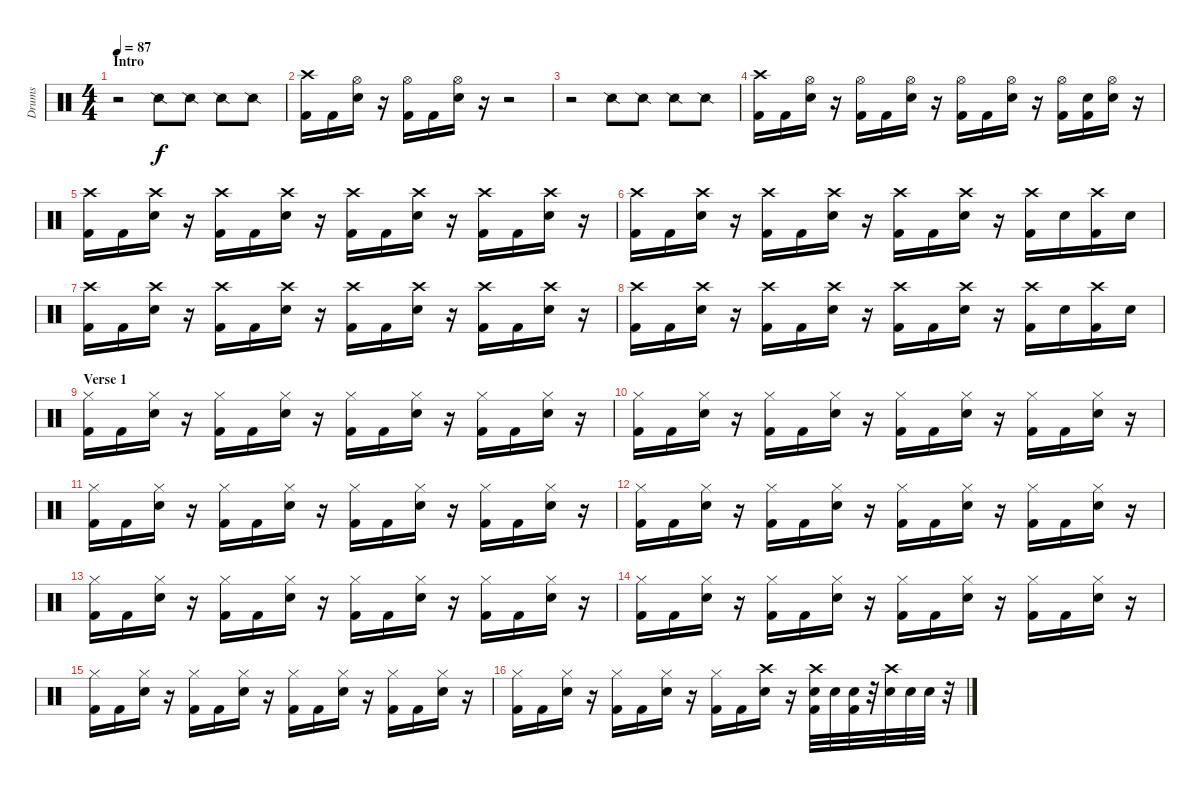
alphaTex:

\track ("Drums" "Drums") {instrument percussion}
\staff {score}
\articulation defaults
\ts (4 4)
\section ("" "Intro")
\tempo 87
\clef neutral
\ks c
r.2{dy f} "Snare (side stick) 2".8 "Snare (side stick) 2".8 "Snare (side stick) 2".8 "Snare (side stick) 2".8 |
("Crash high (hit)" "Kick (hit) 2").16 "Kick (hit) 2".16 ("Hi-Hat (open)" "Electric Snare (hit)").16 r.16 ("Hi-Hat (open)" "Kick (hit) 2").16 "Kick (hit) 2".16 ("Hi-Hat (open)" "Electric Snare (hit)").16 r.16 r.2 |
r.2 "Snare (side stick) 2".8 "Snare (side stick) 2".8 "Snare (side stick) 2".8 "Snare (side stick) 2".8 |
("Crash high (hit)" "Kick (hit) 2").16 "Kick (hit) 2".16 ("Hi-Hat (open)" "Electric Snare (hit)").16 r.16 ("Hi-Hat (open)" "Kick (hit) 2").16 "Kick (hit) 2".16 ("Hi-Hat (open)" "Electric Snare (hit)").16 r.16 ("Hi-Hat (open)" "Kick (hit) 2").16 "Kick (hit) 2".16 ("Hi-Hat (open)" "Electric Snare (hit)").16 r.16 ("Hi-Hat (open)" "Kick (hit) 2").16 ("Electric Snare (hit)" "Kick (hit) 2").16 ("Hi-Hat (open)" "Electric Snare (hit)").16 r.16 |
("Crash high (hit)" "Kick (hit) 2").16 "Kick (hit) 2".16 ("Crash high (hit)" "Electric Snare (hit)").16 r.16 ("Crash high (hit)" "Kick (hit) 2").16 "Kick (hit) 2".16 ("Crash high (hit)" "Electric Snare (hit)").16 r.16 ("Crash high (hit)" "Kick (hit) 2").16 "Kick (hit) 2".16 ("Crash high (hit)" "Electric Snare (hit)").16 r.16 ("Crash high (hit)" "Kick (hit) 2").16 "Kick (hit) 2".16 ("Crash high (hit)" "Electric Snare (hit)").16 r.16 |
("Crash high (hit)" "Kick (hit) 2").16 "Kick (hit) 2".16 ("Crash high (hit)" "Electric Snare (hit)").16 r.16 ("Crash high (hit)" "Kick (hit) 2").16 "Kick (hit) 2".16 ("Crash high (hit)" "Electric Snare (hit)").16 r.16 ("Crash high (hit)" "Kick (hit) 2").16 "Kick (hit) 2".16 ("Crash high (hit)" "Electric Snare (hit)").16 r.16 ("Crash high (hit)" "Kick (hit) 2").16 "Electric Snare (hit)".16 ("Crash high (hit)" "Kick (hit) 2").16 "Electric Snare (hit)".16 |
("Crash high (hit)" "Kick (hit) 2").16 "Kick (hit) 2".16 ("Crash high (hit)" "Electric Snare (hit)").16 r.16 ("Crash high (hit)" "Kick (hit) 2").16 "Kick (hit) 2".16 ("Crash high (hit)" "Electric Snare (hit)").16 r.16 ("Crash high (hit)" "Kick (hit) 2").16 "Kick (hit) 2".16 ("Crash high (hit)" "Electric Snare (hit)").16 r.16 ("Crash high (hit)" "Kick (hit) 2").16 "Kick (hit) 2".16 ("Crash high (hit)" "Electric Snare (hit)").16 r.16 |
("Crash high (hit)" "Kick (hit) 2").16 "Kick (hit) 2".16 ("Crash high (hit)" "Electric Snare (hit)").16 r.16 ("Crash high (hit)" "Kick (hit) 2").16 "Kick (hit) 2".16 ("Crash high (hit)" "Electric Snare (hit)").16 r.16 ("Crash high (hit)" "Kick (hit) 2").16 "Kick (hit) 2".16 ("Crash high (hit)" "Electric Snare (hit)").16 r.16 ("Crash high (hit)" "Kick (hit) 2").16 "Electric Snare (hit)".16 ("Crash high (hit)" "Kick (hit) 2").16 "Electric Snare (hit)".16 |
\section ("" "Verse 1")
("Hi-Hat (closed)" "Kick (hit) 2").16 "Kick (hit) 2".16 ("Hi-Hat (closed)" "Electric Snare (hit)").16 r.16 ("Hi-Hat (closed)" "Kick (hit) 2").16 "Kick (hit) 2".16 ("Hi-Hat (closed)" "Electric Snare (hit)").16 r.16 ("Hi-Hat (closed)" "Kick (hit) 2").16 "Kick (hit) 2".16 ("Hi-Hat (closed)" "Electric Snare (hit)").16 r.16 ("Hi-Hat (closed)" "Kick (hit) 2").16 "Kick (hit) 2".16 ("Hi-Hat (closed)" "Electric Snare (hit)").16 r.16 |
("Hi-Hat (closed)" "Kick (hit) 2").16 "Kick (hit) 2".16 ("Hi-Hat (closed)" "Electric Snare (hit)").16 r.16 ("Hi-Hat (closed)" "Kick (hit) 2").16 "Kick (hit) 2".16 ("Hi-Hat (closed)" "Electric Snare (hit)").16 r.16 ("Hi-Hat (closed)" "Kick (hit) 2").16 "Kick (hit) 2".16 ("Hi-Hat (closed)" "Electric Snare (hit)").16 r.16 ("Hi-Hat (closed)" "Kick (hit) 2").16 "Kick (hit) 2".16 ("Hi-Hat (closed)" "Electric Snare (hit)").16 r.16 |
("Hi-Hat (closed)" "Kick (hit) 2").16 "Kick (hit) 2".16 ("Hi-Hat (closed)" "Electric Snare (hit)").16 r.16 ("Hi-Hat (closed)" "Kick (hit) 2").16 "Kick (hit) 2".16 ("Hi-Hat (closed)" "Electric Snare (hit)").16 r.16 ("Hi-Hat (closed)" "Kick (hit) 2").16 "Kick (hit) 2".16 ("Hi-Hat (closed)" "Electric Snare (hit)").16 r.16 ("Hi-Hat (closed)" "Kick (hit) 2").16 "Kick (hit) 2".16 ("Hi-Hat (closed)" "Electric Snare (hit)").16 r.16 |
("Hi-Hat (closed)" "Kick (hit) 2").16 "Kick (hit) 2".16 ("Hi-Hat (closed)" "Electric Snare (hit)").16 r.16 ("Hi-Hat (closed)" "Kick (hit) 2").16 "Kick (hit) 2".16 ("Hi-Hat (closed)" "Electric Snare (hit)").16 r.16 ("Hi-Hat (closed)" "Kick (hit) 2").16 "Kick (hit) 2".16 ("Hi-Hat (closed)" "Electric Snare (hit)").16 r.16 ("Hi-Hat (closed)" "Kick (hit) 2").16 "Kick (hit) 2".16 ("Hi-Hat (closed)" "Electric Snare (hit)").16 r.16 |
("Hi-Hat (closed)" "Kick (hit) 2").16 "Kick (hit) 2".16 ("Hi-Hat (closed)" "Electric Snare (hit)").16 r.16 ("Hi-Hat (closed)" "Kick (hit) 2").16 "Kick (hit) 2".16 ("Hi-Hat (closed)" "Electric Snare (hit)").16 r.16 ("Hi-Hat (closed)" "Kick (hit) 2").16 "Kick (hit) 2".16 ("Hi-Hat (closed)" "Electric Snare (hit)").16 r.16 ("Hi-Hat (closed)" "Kick (hit) 2").16 "Kick (hit) 2".16 ("Hi-Hat (closed)" "Electric Snare (hit)").16 r.16 |
("Hi-Hat (closed)" "Kick (hit) 2").16 "Kick (hit) 2".16 ("Hi-Hat (closed)" "Electric Snare (hit)").16 r.16 ("Hi-Hat (closed)" "Kick (hit) 2").16 "Kick (hit) 2".16 ("Hi-Hat (closed)" "Electric Snare (hit)").16 r.16 ("Hi-Hat (closed)" "Kick (hit) 2").16 "Kick (hit) 2".16 ("Hi-Hat (closed)" "Electric Snare (hit)").16 r.16 ("Hi-Hat (closed)" "Kick (hit) 2").16 "Kick (hit) 2".16 ("Hi-Hat (closed)" "Electric Snare (hit)").16 r.16 |
("Hi-Hat (closed)" "Kick (hit) 2").16 "Kick (hit) 2".16 ("Hi-Hat (closed)" "Electric Snare (hit)").16 r.16 ("Hi-Hat (closed)" "Kick (hit) 2").16 "Kick (hit) 2".16 ("Hi-Hat (closed)" "Electric Snare (hit)").16 r.16 ("Hi-Hat (closed)" "Kick (hit) 2").16 "Kick (hit) 2".16 ("Hi-Hat (closed)" "Electric Snare (hit)").16 r.16 ("Hi-Hat (closed)" "Kick (hit) 2").16 "Kick (hit) 2".16 ("Hi-Hat (closed)" "Electric Snare (hit)").16 r.16 |
("Hi-Hat (closed)" "Kick (hit) 2").16 "Kick (hit) 2".16 ("Hi-Hat (closed)" "Electric Snare (hit)").16 r.16 ("Hi-Hat (closed)" "Kick (hit) 2").16 "Kick (hit) 2".16 ("Hi-Hat (closed)" "Electric Snare (hit)").16 r.16 ("Hi-Hat (closed)" "Kick (hit) 2").16 "Kick (hit) 2".16 ("Crash high (hit)" "Electric Snare (hit)").16 r.16 ("Crash high (hit)" "Electric Snare (hit)" "Kick (hit) 2").32 "Electric Snare (hit)".32 ("Electric Snare (hit)" "Kick (hit) 2").32 r.32 ("Crash high (hit)" "Electric Snare (hit)").32 "Electric Snare (hit)".32 "Electric Snare (hit)".32 r.32
